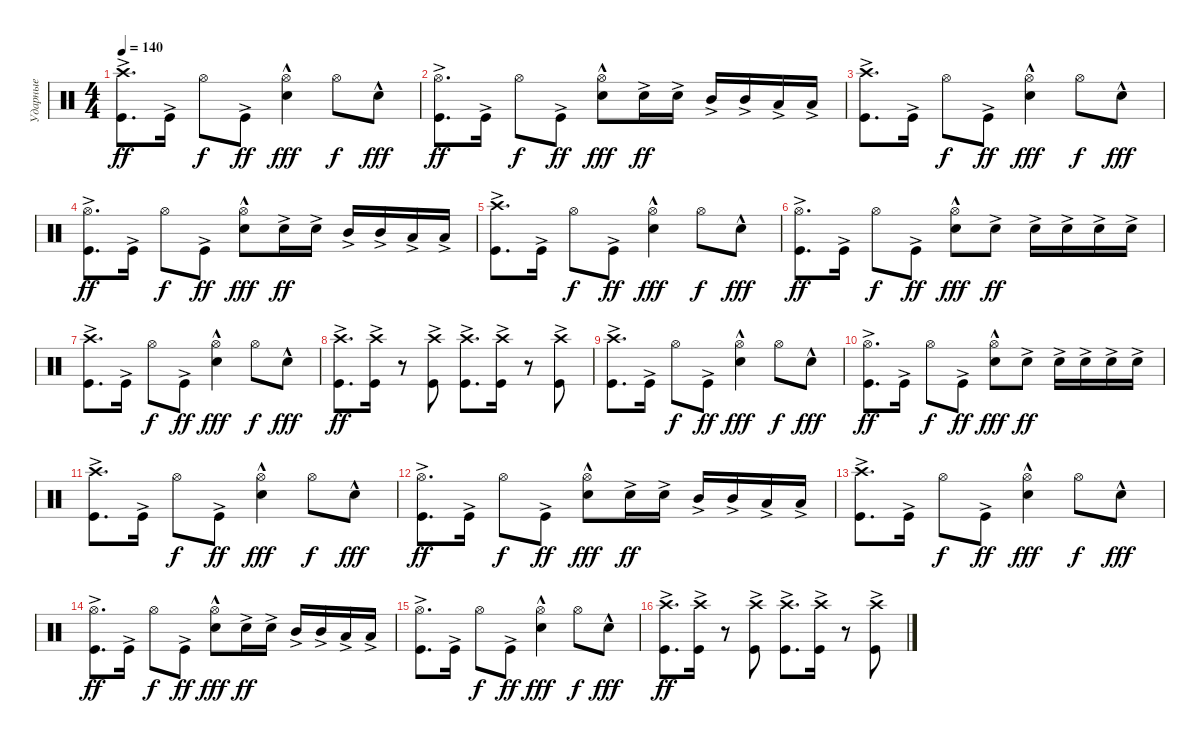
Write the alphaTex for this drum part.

\track ("Ударные" "Ударные") {instrument percussion}
\staff {score}
\articulation defaults
\ts (4 4)
\tempo 140
\clef neutral
\ks c
("Kick (hit)"{ac} "Crash high (hit)").8{d dy ff volume 12} "Kick (hit)"{ac}.16 "Hi-Hat (open)".8{dy f} "Kick (hit)"{ac}.8{dy ff} ("Electric Snare (hit)"{hac} "Hi-Hat (open)").4{dy fff} "Hi-Hat (open)".8{dy f} "Electric Snare (hit)"{hac}.8{dy fff} |
("Kick (hit)"{ac} "Hi-Hat (open)").8{d dy ff} "Kick (hit)"{ac}.16 "Hi-Hat (open)".8{dy f} "Kick (hit)"{ac}.8{dy ff} ("Electric Snare (hit)"{hac} "Hi-Hat (open)").8{dy fff} "Electric Snare (hit)"{ac}.16{dy ff} "Electric Snare (hit)"{ac}.16 "Mid Tom (hit)"{ac}.16 "Mid Tom (hit)"{ac}.16 "Low Tom (hit)"{ac}.16 "Low Tom (hit)"{ac}.16 |
("Kick (hit)"{ac} "Crash high (hit)").8{d} "Kick (hit)"{ac}.16 "Hi-Hat (open)".8{dy f} "Kick (hit)"{ac}.8{dy ff} ("Electric Snare (hit)"{hac} "Hi-Hat (open)").4{dy fff} "Hi-Hat (open)".8{dy f} "Electric Snare (hit)"{hac}.8{dy fff} |
("Kick (hit)"{ac} "Hi-Hat (open)").8{d dy ff} "Kick (hit)"{ac}.16 "Hi-Hat (open)".8{dy f} "Kick (hit)"{ac}.8{dy ff} ("Electric Snare (hit)"{hac} "Hi-Hat (open)").8{dy fff} "Electric Snare (hit)"{ac}.16{dy ff} "Electric Snare (hit)"{ac}.16 "Mid Tom (hit)"{ac}.16 "Mid Tom (hit)"{ac}.16 "Low Tom (hit)"{ac}.16 "Low Tom (hit)"{ac}.16 |
("Kick (hit)"{ac} "Crash high (hit)").8{d} "Kick (hit)"{ac}.16 "Hi-Hat (open)".8{dy f} "Kick (hit)"{ac}.8{dy ff} ("Electric Snare (hit)"{hac} "Hi-Hat (open)").4{dy fff} "Hi-Hat (open)".8{dy f} "Electric Snare (hit)"{hac}.8{dy fff} |
("Kick (hit)"{ac} "Hi-Hat (open)").8{d dy ff} "Kick (hit)"{ac}.16 "Hi-Hat (open)".8{dy f} "Kick (hit)"{ac}.8{dy ff} ("Electric Snare (hit)"{hac} "Hi-Hat (open)").8{dy fff} "Electric Snare (hit)"{ac}.8{dy ff} "Electric Snare (hit)"{ac}.16 "Electric Snare (hit)"{ac}.16 "Electric Snare (hit)"{ac}.16 "Electric Snare (hit)"{ac}.16 |
("Kick (hit)"{ac} "Crash high (hit)").8{d} "Kick (hit)"{ac}.16 "Hi-Hat (open)".8{dy f} "Kick (hit)"{ac}.8{dy ff} ("Electric Snare (hit)"{hac} "Hi-Hat (open)").4{dy fff} "Hi-Hat (open)".8{dy f} "Electric Snare (hit)"{hac}.8{dy fff} |
("Kick (hit)"{ac} "Crash high (hit)").8{d dy ff} ("Kick (hit)"{ac} "Crash high (hit)").16 r.8 ("Kick (hit)"{ac} "Crash high (hit)").8 ("Kick (hit)"{ac} "Crash high (hit)").8{d} ("Kick (hit)"{ac} "Crash high (hit)").16 r.8 ("Kick (hit)"{ac} "Crash high (hit)").8 |
("Kick (hit)"{ac} "Crash high (hit)").8{d} "Kick (hit)"{ac}.16 "Hi-Hat (open)".8{dy f} "Kick (hit)"{ac}.8{dy ff} ("Electric Snare (hit)"{hac} "Hi-Hat (open)").4{dy fff} "Hi-Hat (open)".8{dy f} "Electric Snare (hit)"{hac}.8{dy fff} |
("Kick (hit)"{ac} "Hi-Hat (open)").8{d dy ff} "Kick (hit)"{ac}.16 "Hi-Hat (open)".8{dy f} "Kick (hit)"{ac}.8{dy ff} ("Electric Snare (hit)"{hac} "Hi-Hat (open)").8{dy fff} "Electric Snare (hit)"{ac}.8{dy ff} "Electric Snare (hit)"{ac}.16 "Electric Snare (hit)"{ac}.16 "Electric Snare (hit)"{ac}.16 "Electric Snare (hit)"{ac}.16 |
("Kick (hit)"{ac} "Crash high (hit)").8{d} "Kick (hit)"{ac}.16 "Hi-Hat (open)".8{dy f} "Kick (hit)"{ac}.8{dy ff} ("Electric Snare (hit)"{hac} "Hi-Hat (open)").4{dy fff} "Hi-Hat (open)".8{dy f} "Electric Snare (hit)"{hac}.8{dy fff} |
("Kick (hit)"{ac} "Hi-Hat (open)").8{d dy ff} "Kick (hit)"{ac}.16 "Hi-Hat (open)".8{dy f} "Kick (hit)"{ac}.8{dy ff} ("Electric Snare (hit)"{hac} "Hi-Hat (open)").8{dy fff} "Electric Snare (hit)"{ac}.16{dy ff} "Electric Snare (hit)"{ac}.16 "Mid Tom (hit)"{ac}.16 "Mid Tom (hit)"{ac}.16 "Low Tom (hit)"{ac}.16 "Low Tom (hit)"{ac}.16 |
("Kick (hit)"{ac} "Crash high (hit)").8{d} "Kick (hit)"{ac}.16 "Hi-Hat (open)".8{dy f} "Kick (hit)"{ac}.8{dy ff} ("Electric Snare (hit)"{hac} "Hi-Hat (open)").4{dy fff} "Hi-Hat (open)".8{dy f} "Electric Snare (hit)"{hac}.8{dy fff} |
("Kick (hit)"{ac} "Hi-Hat (open)").8{d dy ff} "Kick (hit)"{ac}.16 "Hi-Hat (open)".8{dy f} "Kick (hit)"{ac}.8{dy ff} ("Electric Snare (hit)"{hac} "Hi-Hat (open)").8{dy fff} "Electric Snare (hit)"{ac}.16{dy ff} "Electric Snare (hit)"{ac}.16 "Mid Tom (hit)"{ac}.16 "Mid Tom (hit)"{ac}.16 "Low Tom (hit)"{ac}.16 "Low Tom (hit)"{ac}.16 |
("Kick (hit)"{ac} "Hi-Hat (open)").8{d} "Kick (hit)"{ac}.16 "Hi-Hat (open)".8{dy f} "Kick (hit)"{ac}.8{dy ff} ("Electric Snare (hit)"{hac} "Hi-Hat (open)").4{dy fff} "Hi-Hat (open)".8{dy f} "Electric Snare (hit)"{hac}.8{dy fff} |
("Kick (hit)"{ac} "Crash high (hit)").8{d dy ff} ("Kick (hit)"{ac} "Crash high (hit)").16 r.8 ("Kick (hit)"{ac} "Crash high (hit)").8 ("Kick (hit)"{ac} "Crash high (hit)").8{d} ("Kick (hit)"{ac} "Crash high (hit)").16 r.8 ("Kick (hit)"{ac} "Crash high (hit)").8
